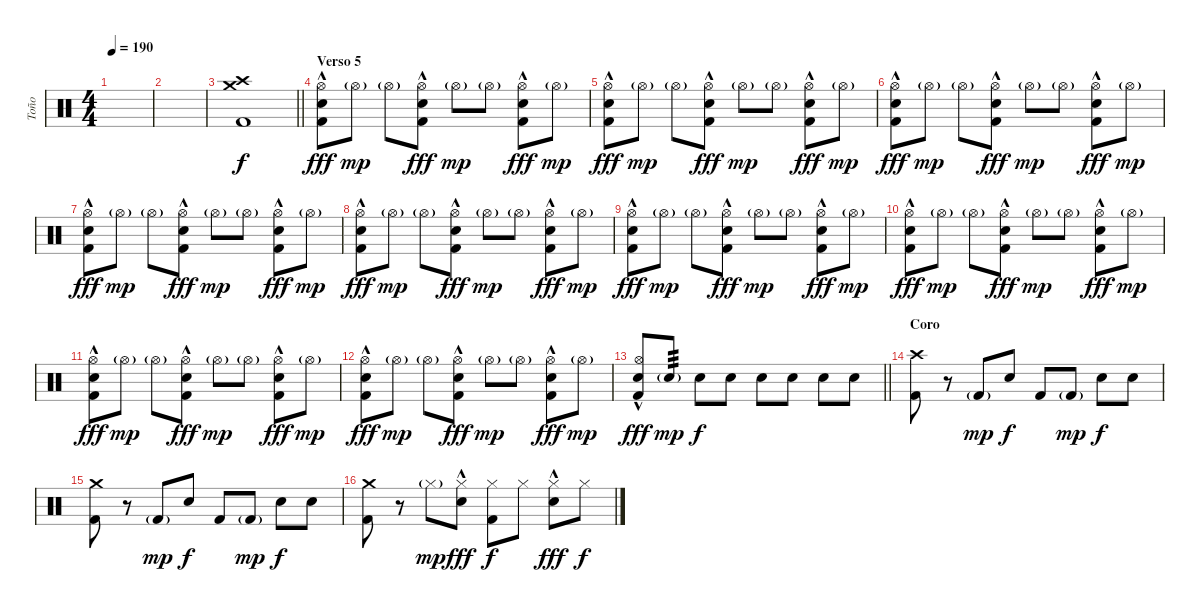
\track ("Toño" "Toño") {instrument percussion}
\staff {score}
\articulation defaults
\ts (4 4)
\tempo 190
\clef neutral
\ks c
|
|
\barLineRight lightlight
("Crash high (hit)" "Crash medium (hit)" "Kick (hit) 2").1 |
\section ("" "Verso 5")
("Hi-Hat (open)"{hac} "Snare (hit) 2" "Kick (hit) 2").8{dy fff} "Hi-Hat (open)"{g}.8{dy mp} "Hi-Hat (open)"{g}.8 ("Hi-Hat (open)"{hac} "Snare (hit) 2" "Kick (hit) 2").8{dy fff} "Hi-Hat (open)"{g}.8{dy mp} "Hi-Hat (open)"{g}.8 ("Hi-Hat (open)"{hac} "Snare (hit) 2" "Kick (hit) 2").8{dy fff} "Hi-Hat (open)"{g}.8{dy mp} |
("Hi-Hat (open)"{hac} "Snare (hit) 2" "Kick (hit) 2").8{dy fff} "Hi-Hat (open)"{g}.8{dy mp} "Hi-Hat (open)"{g}.8 ("Hi-Hat (open)"{hac} "Snare (hit) 2" "Kick (hit) 2").8{dy fff} "Hi-Hat (open)"{g}.8{dy mp} "Hi-Hat (open)"{g}.8 ("Hi-Hat (open)"{hac} "Snare (hit) 2" "Kick (hit) 2").8{dy fff} "Hi-Hat (open)"{g}.8{dy mp} |
("Hi-Hat (open)"{hac} "Snare (hit) 2" "Kick (hit) 2").8{dy fff} "Hi-Hat (open)"{g}.8{dy mp} "Hi-Hat (open)"{g}.8 ("Hi-Hat (open)"{hac} "Snare (hit) 2" "Kick (hit) 2").8{dy fff} "Hi-Hat (open)"{g}.8{dy mp} "Hi-Hat (open)"{g}.8 ("Hi-Hat (open)"{hac} "Snare (hit) 2" "Kick (hit) 2").8{dy fff} "Hi-Hat (open)"{g}.8{dy mp} |
("Hi-Hat (open)"{hac} "Snare (hit) 2" "Kick (hit) 2").8{dy fff} "Hi-Hat (open)"{g}.8{dy mp} "Hi-Hat (open)"{g}.8 ("Hi-Hat (open)"{hac} "Snare (hit) 2" "Kick (hit) 2").8{dy fff} "Hi-Hat (open)"{g}.8{dy mp} "Hi-Hat (open)"{g}.8 ("Hi-Hat (open)"{hac} "Snare (hit) 2" "Kick (hit) 2").8{dy fff} "Hi-Hat (open)"{g}.8{dy mp} |
("Hi-Hat (open)"{hac} "Snare (hit) 2" "Kick (hit) 2").8{dy fff} "Hi-Hat (open)"{g}.8{dy mp} "Hi-Hat (open)"{g}.8 ("Hi-Hat (open)"{hac} "Snare (hit) 2" "Kick (hit) 2").8{dy fff} "Hi-Hat (open)"{g}.8{dy mp} "Hi-Hat (open)"{g}.8 ("Hi-Hat (open)"{hac} "Snare (hit) 2" "Kick (hit) 2").8{dy fff} "Hi-Hat (open)"{g}.8{dy mp} |
("Hi-Hat (open)"{hac} "Snare (hit) 2" "Kick (hit) 2").8{dy fff} "Hi-Hat (open)"{g}.8{dy mp} "Hi-Hat (open)"{g}.8 ("Hi-Hat (open)"{hac} "Snare (hit) 2" "Kick (hit) 2").8{dy fff} "Hi-Hat (open)"{g}.8{dy mp} "Hi-Hat (open)"{g}.8 ("Hi-Hat (open)"{hac} "Snare (hit) 2" "Kick (hit) 2").8{dy fff} "Hi-Hat (open)"{g}.8{dy mp} |
("Hi-Hat (open)"{hac} "Snare (hit) 2" "Kick (hit) 2").8{dy fff} "Hi-Hat (open)"{g}.8{dy mp} "Hi-Hat (open)"{g}.8 ("Hi-Hat (open)"{hac} "Snare (hit) 2" "Kick (hit) 2").8{dy fff} "Hi-Hat (open)"{g}.8{dy mp} "Hi-Hat (open)"{g}.8 ("Hi-Hat (open)"{hac} "Snare (hit) 2" "Kick (hit) 2").8{dy fff} "Hi-Hat (open)"{g}.8{dy mp} |
("Hi-Hat (open)"{hac} "Snare (hit) 2" "Kick (hit) 2").8{dy fff} "Hi-Hat (open)"{g}.8{dy mp} "Hi-Hat (open)"{g}.8 ("Hi-Hat (open)"{hac} "Snare (hit) 2" "Kick (hit) 2").8{dy fff} "Hi-Hat (open)"{g}.8{dy mp} "Hi-Hat (open)"{g}.8 ("Hi-Hat (open)"{hac} "Snare (hit) 2" "Kick (hit) 2").8{dy fff} "Hi-Hat (open)"{g}.8{dy mp} |
("Hi-Hat (open)"{hac} "Snare (hit) 2" "Kick (hit) 2").8{dy fff} "Hi-Hat (open)"{g}.8{dy mp} "Hi-Hat (open)"{g}.8 ("Hi-Hat (open)"{hac} "Snare (hit) 2" "Kick (hit) 2").8{dy fff} "Hi-Hat (open)"{g}.8{dy mp} "Hi-Hat (open)"{g}.8 ("Hi-Hat (open)"{hac} "Snare (hit) 2" "Kick (hit) 2").8{dy fff} "Hi-Hat (open)"{g}.8{dy mp} |
\barLineRight lightlight
("Hi-Hat (open)"{hac} "Snare (hit) 2" "Kick (hit) 2").8{dy fff} "Snare (hit) 2"{g}.8{tp 3 dy mp} "Snare (hit) 2".8{dy f} "Snare (hit) 2".8 "Snare (hit) 2".8 "Snare (hit) 2".8 "Snare (hit) 2".8 "Snare (hit) 2".8 |
\section ("" "Coro")
("Crash high (hit)" "Kick (hit) 2").8 r.8 "Kick (hit) 2"{g}.8{dy mp} "Snare (hit) 2".8{dy f} "Kick (hit) 2".8 "Kick (hit) 2"{g}.8{dy mp} "Snare (hit) 2".8{dy f} "Snare (hit) 2".8 |
("Crash medium (hit)" "Kick (hit) 2").8 r.8 "Kick (hit) 2"{g}.8{dy mp} "Snare (hit) 2".8{dy f} "Kick (hit) 2".8 "Kick (hit) 2"{g}.8{dy mp} "Snare (hit) 2".8{dy f} "Snare (hit) 2".8 |
("Crash medium (hit)" "Kick (hit) 2").8 r.8 "Hi-Hat (closed)"{g}.8{dy mp} ("Hi-Hat (closed)"{hac} "Snare (hit) 2").8{dy fff} ("Hi-Hat (closed)" "Kick (hit) 2").8{dy f} "Hi-Hat (closed)".8 ("Hi-Hat (closed)"{hac} "Snare (hit) 2").8{dy fff} "Hi-Hat (closed)".8{dy f}
